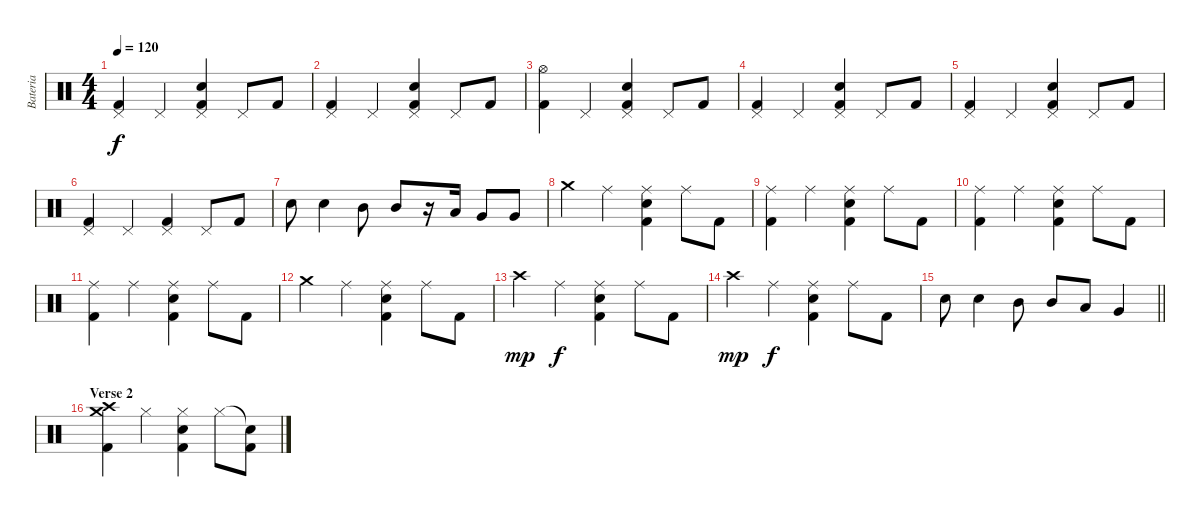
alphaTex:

\track ("Bateria" "Bateria") {instrument percussion}
\staff {score}
\articulation defaults
\ts (4 4)
\tempo 120
\clef neutral
\ks c
("Pedal Hi-Hat (hit)" "Kick (hit) 2").4{dy f} "Pedal Hi-Hat (hit)".4 ("Pedal Hi-Hat (hit)" "Electric Snare (hit)" "Kick (hit) 2").4 "Pedal Hi-Hat (hit)".8 "Kick (hit) 2".8 |
("Pedal Hi-Hat (hit)" "Kick (hit) 2").4 "Pedal Hi-Hat (hit)".4 ("Pedal Hi-Hat (hit)" "Electric Snare (hit)" "Kick (hit) 2").4 "Pedal Hi-Hat (hit)".8 "Kick (hit) 2".8 |
("Hi-Hat (open)" "Kick (hit) 2").4 "Pedal Hi-Hat (hit)".4 ("Pedal Hi-Hat (hit)" "Electric Snare (hit)" "Kick (hit) 2").4 "Pedal Hi-Hat (hit)".8 "Kick (hit) 2".8 |
("Pedal Hi-Hat (hit)" "Kick (hit) 2").4 "Pedal Hi-Hat (hit)".4 ("Pedal Hi-Hat (hit)" "Electric Snare (hit)" "Kick (hit) 2").4 "Pedal Hi-Hat (hit)".8 "Kick (hit) 2".8 |
("Pedal Hi-Hat (hit)" "Kick (hit) 2").4 "Pedal Hi-Hat (hit)".4 ("Pedal Hi-Hat (hit)" "Electric Snare (hit)" "Kick (hit) 2").4 "Pedal Hi-Hat (hit)".8 "Kick (hit) 2".8 |
("Pedal Hi-Hat (hit)" "Kick (hit) 2").4 "Pedal Hi-Hat (hit)".4 ("Pedal Hi-Hat (hit)" "Kick (hit) 2").4 "Pedal Hi-Hat (hit)".8 "Kick (hit) 2".8 |
"Electric Snare (hit)".8 "Electric Snare (hit)".4 "Mid Tom (hit)".8 "Mid Tom (hit)".8 r.16 "Low Tom (hit)".16 "Very Low Tom (hit)".8 "Very Low Tom (hit)".8 |
"Crash medium (hit)".4 "Ride (middle)".4 ("Ride (middle)" "Electric Snare (hit)" "Kick (hit) 2").4 "Ride (middle)".8 "Kick (hit) 2".8 |
("Ride (middle)" "Kick (hit) 2").4 "Ride (middle)".4 ("Ride (middle)" "Electric Snare (hit)" "Kick (hit) 2").4 "Ride (middle)".8 "Kick (hit) 2".8 |
("Ride (middle)" "Kick (hit) 2").4 "Ride (middle)".4 ("Ride (middle)" "Electric Snare (hit)" "Kick (hit) 2").4 "Ride (middle)".8 "Kick (hit) 2".8 |
("Ride (middle)" "Kick (hit) 2").4 "Ride (middle)".4 ("Ride (middle)" "Electric Snare (hit)" "Kick (hit) 2").4 "Ride (middle)".8 "Kick (hit) 2".8 |
"Crash medium (hit)".4 "Ride (middle)".4 ("Ride (middle)" "Electric Snare (hit)" "Kick (hit) 2").4 "Ride (middle)".8 "Kick (hit) 2".8 |
"Crash high (hit)".4{dy mp} "Ride (middle)".4{dy f} ("Ride (middle)" "Electric Snare (hit)" "Kick (hit) 2").4 "Ride (middle)".8 "Kick (hit) 2".8 |
"Crash high (hit)".4{dy mp} "Ride (middle)".4{dy f} ("Ride (middle)" "Electric Snare (hit)" "Kick (hit) 2").4 "Ride (middle)".8 "Kick (hit) 2".8 |
\barLineRight lightlight "Electric Snare (hit)".8 "Electric Snare (hit)".4 "Mid Tom (hit)".8 "Mid Tom (hit)".8 "Low Tom (hit)".8 "Very Low Tom (hit)".4
|
\section ("" "Verse 2")
("Crash medium (hit)" "Crash high (hit)" "Kick (hit) 2").4 "Hi-Hat (closed)".4 ("Hi-Hat (closed)" "Electric Snare (hit)" "Kick (hit) 2").4 "Hi-Hat (closed)".8 ("Snare (hit)"{t} "Kick (hit) 2").8
